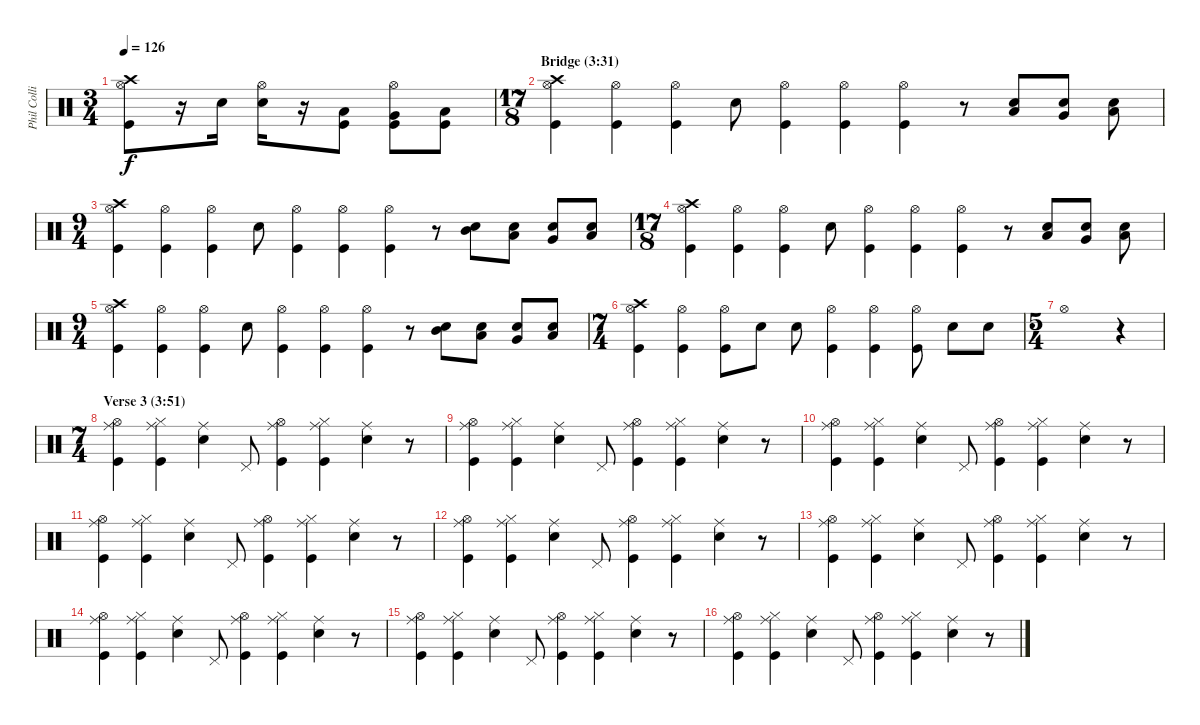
\track ("Phil Collins (drums)" "Phil Colli") {instrument percussion}
\staff {score}
\articulation defaults
\ts (3 4)
\tempo 126
\clef neutral
\ks c
("Crash high (hit)" "Hi-Hat (open)" "Kick (hit)").8{dy f} r.16 "Snare (hit) 2".16 ("Hi-Hat (open)" "Snare (hit) 2").16 r.16 ("Low Tom (hit)" "Kick (hit)").8 ("Hi-Hat (open)" "Very Low Tom (hit)" "Kick (hit)").8 ("Low Floor Tom (hit)" "Kick (hit)").8 |
\ts (17 8)
\section ("" "Bridge (3:31)")
("Crash high (hit)" "Hi-Hat (open)" "Kick (hit)").4 ("Hi-Hat (open)" "Kick (hit)").4 ("Hi-Hat (open)" "Kick (hit)").4 "Snare (hit) 2".8 ("Hi-Hat (open)" "Kick (hit)").4 ("Hi-Hat (open)" "Kick (hit)").4 ("Hi-Hat (open)" "Kick (hit)").4 r.8 ("Low Tom (hit)" "Snare (hit) 2").8 ("Very Low Tom (hit)" "Snare (hit) 2").8 ("Low Floor Tom (hit)" "Snare (hit) 2").8 |
\ts (9 4)
("Crash high (hit)" "Hi-Hat (open)" "Kick (hit)").4 ("Hi-Hat (open)" "Kick (hit)").4 ("Hi-Hat (open)" "Kick (hit)").4 "Snare (hit) 2".8 ("Hi-Hat (open)" "Kick (hit)").4 ("Hi-Hat (open)" "Kick (hit)").4 ("Hi-Hat (open)" "Kick (hit)").4 r.8 ("Mid Tom (hit)" "Snare (hit) 2").8 ("Low Tom (hit)" "Snare (hit) 2").8 ("Very Low Tom (hit)" "Snare (hit) 2").8 ("Low Floor Tom (hit)" "Snare (hit) 2").8 |
\ts (17 8)
("Crash high (hit)" "Hi-Hat (open)" "Kick (hit)").4 ("Hi-Hat (open)" "Kick (hit)").4 ("Hi-Hat (open)" "Kick (hit)").4 "Snare (hit) 2".8 ("Hi-Hat (open)" "Kick (hit)").4 ("Hi-Hat (open)" "Kick (hit)").4 ("Hi-Hat (open)" "Kick (hit)").4 r.8 ("Low Tom (hit)" "Snare (hit) 2").8 ("Very Low Tom (hit)" "Snare (hit) 2").8 ("Low Floor Tom (hit)" "Snare (hit) 2").8 |
\ts (9 4)
("Crash high (hit)" "Hi-Hat (open)" "Kick (hit)").4 ("Hi-Hat (open)" "Kick (hit)").4 ("Hi-Hat (open)" "Kick (hit)").4 "Snare (hit) 2".8 ("Hi-Hat (open)" "Kick (hit)").4 ("Hi-Hat (open)" "Kick (hit)").4 ("Hi-Hat (open)" "Kick (hit)").4 r.8 ("Mid Tom (hit)" "Snare (hit) 2").8 ("Low Tom (hit)" "Snare (hit) 2").8 ("Very Low Tom (hit)" "Snare (hit) 2").8 ("Low Floor Tom (hit)" "Snare (hit) 2").8 |
\ts (7 4)
("Crash high (hit)" "Hi-Hat (open)" "Kick (hit)").4 ("Hi-Hat (open)" "Kick (hit)").4 ("Hi-Hat (open)" "Kick (hit)").8 "Snare (hit) 2".8 "Snare (hit) 2".8 ("Hi-Hat (open)" "Kick (hit)").4 ("Hi-Hat (open)" "Kick (hit)").4 ("Hi-Hat (open)" "Kick (hit)").8 "Snare (hit) 2".8 "Snare (hit) 2".8 |
\ts (5 4)
"Hi-Hat (open)".1 r.4 |
\ts (7 4)
\section ("" "Verse 3 (3:51)")
("Ride (middle)" "Hi-Hat (open)" "Kick (hit)").4 ("Ride (middle)" "Hi-Hat (closed)" "Kick (hit)").4 ("Ride (middle)" "Snare (hit) 2").4 "Pedal Hi-Hat (hit)".8 ("Ride (middle)" "Hi-Hat (open)" "Kick (hit)").4 ("Ride (middle)" "Hi-Hat (closed)" "Kick (hit)").4 ("Ride (middle)" "Snare (hit) 2").4 r.8 |
("Ride (middle)" "Hi-Hat (open)" "Kick (hit)").4 ("Ride (middle)" "Hi-Hat (closed)" "Kick (hit)").4 ("Ride (middle)" "Snare (hit) 2").4 "Pedal Hi-Hat (hit)".8 ("Ride (middle)" "Hi-Hat (open)" "Kick (hit)").4 ("Ride (middle)" "Hi-Hat (closed)" "Kick (hit)").4 ("Ride (middle)" "Snare (hit) 2").4 r.8 |
("Ride (middle)" "Hi-Hat (open)" "Kick (hit)").4 ("Ride (middle)" "Hi-Hat (closed)" "Kick (hit)").4 ("Ride (middle)" "Snare (hit) 2").4 "Pedal Hi-Hat (hit)".8 ("Ride (middle)" "Hi-Hat (open)" "Kick (hit)").4 ("Ride (middle)" "Hi-Hat (closed)" "Kick (hit)").4 ("Ride (middle)" "Snare (hit) 2").4 r.8 |
("Ride (middle)" "Hi-Hat (open)" "Kick (hit)").4 ("Ride (middle)" "Hi-Hat (closed)" "Kick (hit)").4 ("Ride (middle)" "Snare (hit) 2").4 "Pedal Hi-Hat (hit)".8 ("Ride (middle)" "Hi-Hat (open)" "Kick (hit)").4 ("Ride (middle)" "Hi-Hat (closed)" "Kick (hit)").4 ("Ride (middle)" "Snare (hit) 2").4 r.8 |
("Ride (middle)" "Hi-Hat (open)" "Kick (hit)").4 ("Ride (middle)" "Hi-Hat (closed)" "Kick (hit)").4 ("Ride (middle)" "Snare (hit) 2").4 "Pedal Hi-Hat (hit)".8 ("Ride (middle)" "Hi-Hat (open)" "Kick (hit)").4 ("Ride (middle)" "Hi-Hat (closed)" "Kick (hit)").4 ("Ride (middle)" "Snare (hit) 2").4 r.8 |
("Ride (middle)" "Hi-Hat (open)" "Kick (hit)").4 ("Ride (middle)" "Hi-Hat (closed)" "Kick (hit)").4 ("Ride (middle)" "Snare (hit) 2").4 "Pedal Hi-Hat (hit)".8 ("Ride (middle)" "Hi-Hat (open)" "Kick (hit)").4 ("Ride (middle)" "Hi-Hat (closed)" "Kick (hit)").4 ("Ride (middle)" "Snare (hit) 2").4 r.8 |
("Ride (middle)" "Hi-Hat (open)" "Kick (hit)").4 ("Ride (middle)" "Hi-Hat (closed)" "Kick (hit)").4 ("Ride (middle)" "Snare (hit) 2").4 "Pedal Hi-Hat (hit)".8 ("Ride (middle)" "Hi-Hat (open)" "Kick (hit)").4 ("Ride (middle)" "Hi-Hat (closed)" "Kick (hit)").4 ("Ride (middle)" "Snare (hit) 2").4 r.8 |
("Ride (middle)" "Hi-Hat (open)" "Kick (hit)").4 ("Ride (middle)" "Hi-Hat (closed)" "Kick (hit)").4 ("Ride (middle)" "Snare (hit) 2").4 "Pedal Hi-Hat (hit)".8 ("Ride (middle)" "Hi-Hat (open)" "Kick (hit)").4 ("Ride (middle)" "Hi-Hat (closed)" "Kick (hit)").4 ("Ride (middle)" "Snare (hit) 2").4 r.8 |
("Ride (middle)" "Hi-Hat (open)" "Kick (hit)").4 ("Ride (middle)" "Hi-Hat (closed)" "Kick (hit)").4 ("Ride (middle)" "Snare (hit) 2").4 "Pedal Hi-Hat (hit)".8 ("Ride (middle)" "Hi-Hat (open)" "Kick (hit)").4 ("Ride (middle)" "Hi-Hat (closed)" "Kick (hit)").4 ("Ride (middle)" "Snare (hit) 2").4 r.8
